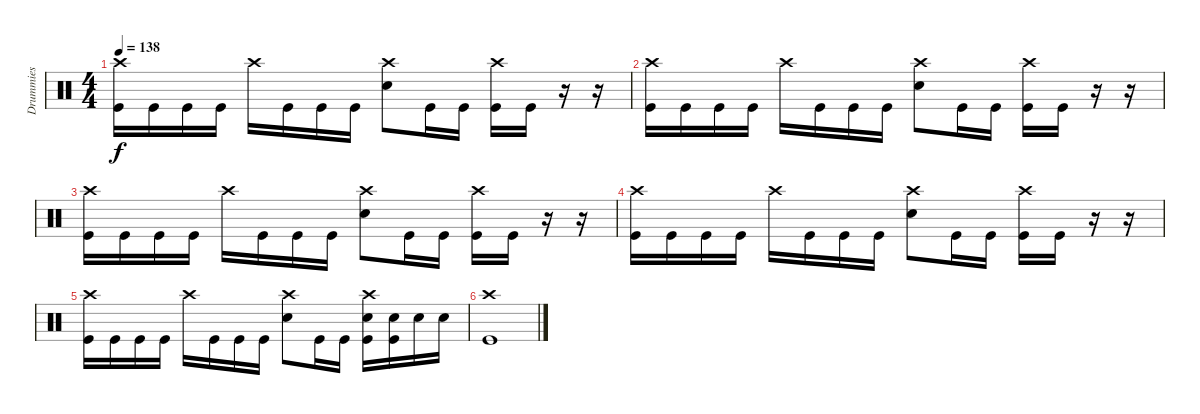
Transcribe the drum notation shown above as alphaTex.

\track ("Drummies" "Drummies") {instrument percussion}
\staff {score}
\articulation defaults
\ts (4 4)
\tempo 138
\clef neutral
\ks c
("Crash high (hit)" "Kick (hit)").16{dy f} "Kick (hit)".16 "Kick (hit)".16 "Kick (hit)".16 "Crash high (hit)".16 "Kick (hit)".16 "Kick (hit)".16 "Kick (hit)".16 ("Crash high (hit)" "Electric Snare (hit)").8 "Kick (hit)".16 "Kick (hit)".16 ("Crash high (hit)" "Kick (hit)").16 "Kick (hit)".16 r.16 r.16 |
("Crash high (hit)" "Kick (hit)").16 "Kick (hit)".16 "Kick (hit)".16 "Kick (hit)".16 "Crash high (hit)".16 "Kick (hit)".16 "Kick (hit)".16 "Kick (hit)".16 ("Crash high (hit)" "Electric Snare (hit)").8 "Kick (hit)".16 "Kick (hit)".16 ("Crash high (hit)" "Kick (hit)").16 "Kick (hit)".16 r.16 r.16 |
("Crash high (hit)" "Kick (hit)").16 "Kick (hit)".16 "Kick (hit)".16 "Kick (hit)".16 "Crash high (hit)".16 "Kick (hit)".16 "Kick (hit)".16 "Kick (hit)".16 ("Crash high (hit)" "Electric Snare (hit)").8 "Kick (hit)".16 "Kick (hit)".16 ("Crash high (hit)" "Kick (hit)").16 "Kick (hit)".16 r.16 r.16 |
("Crash high (hit)" "Kick (hit)").16 "Kick (hit)".16 "Kick (hit)".16 "Kick (hit)".16 "Crash high (hit)".16 "Kick (hit)".16 "Kick (hit)".16 "Kick (hit)".16 ("Crash high (hit)" "Electric Snare (hit)").8 "Kick (hit)".16 "Kick (hit)".16 ("Crash high (hit)" "Kick (hit)").16 "Kick (hit)".16 r.16 r.16 |
("Crash high (hit)" "Kick (hit)").16 "Kick (hit)".16 "Kick (hit)".16 "Kick (hit)".16 "Crash high (hit)".16 "Kick (hit)".16 "Kick (hit)".16 "Kick (hit)".16 ("Crash high (hit)" "Electric Snare (hit)").8 "Kick (hit)".16 "Kick (hit)".16 ("Crash high (hit)" "Electric Snare (hit)" "Kick (hit)").16 ("Electric Snare (hit)" "Kick (hit)").16 "Electric Snare (hit)".16 "Electric Snare (hit)".16 |
("Crash high (hit)" "Kick (hit)").1
